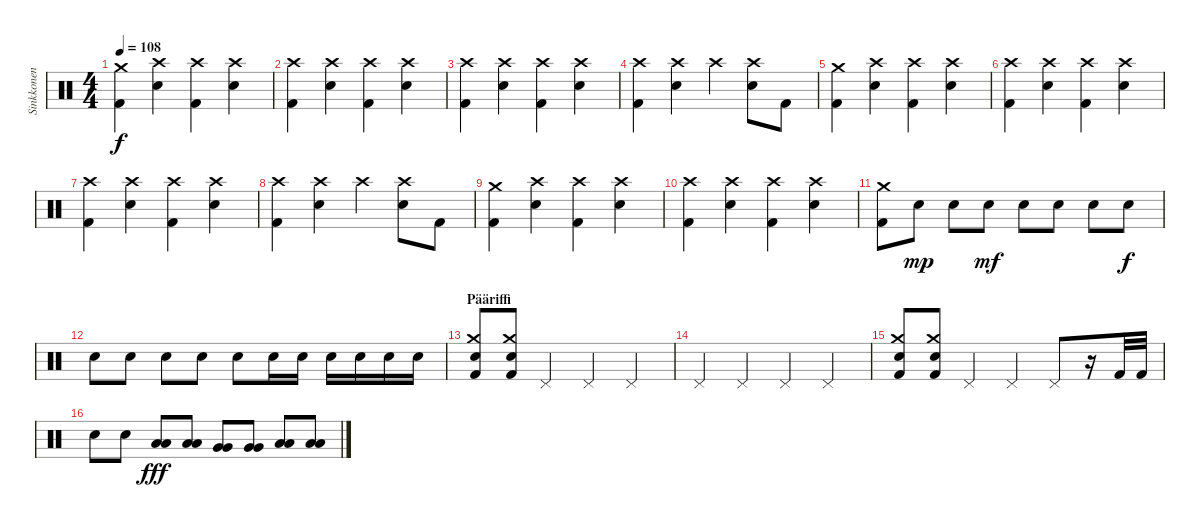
\track ("Sinkkonen" "Sinkkonen") {instrument percussion}
\staff {score}
\articulation defaults
\ts (4 4)
\tempo 108
\clef neutral
\ks c
("Kick (hit) 2" "Crash medium (hit)").4{dy f} ("Crash high (hit)" "Snare (hit) 2").4 ("Kick (hit) 2" "Crash high (hit)").4 ("Crash high (hit)" "Snare (hit) 2").4 |
("Kick (hit) 2" "Crash high (hit)").4 ("Crash high (hit)" "Snare (hit) 2").4 ("Kick (hit) 2" "Crash high (hit)").4 ("Crash high (hit)" "Snare (hit) 2").4 |
("Kick (hit) 2" "Crash high (hit)").4 ("Crash high (hit)" "Snare (hit) 2").4 ("Kick (hit) 2" "Crash high (hit)").4 ("Crash high (hit)" "Snare (hit) 2").4 |
("Kick (hit) 2" "Crash high (hit)").4 ("Crash high (hit)" "Snare (hit) 2").4 "Crash high (hit)".4 ("Crash high (hit)" "Snare (hit) 2").8 "Kick (hit) 2".8 |
("Kick (hit) 2" "Crash medium (hit)").4 ("Crash high (hit)" "Snare (hit) 2").4 ("Kick (hit) 2" "Crash high (hit)").4 ("Crash high (hit)" "Snare (hit) 2").4 |
("Kick (hit) 2" "Crash high (hit)").4 ("Crash high (hit)" "Snare (hit) 2").4 ("Kick (hit) 2" "Crash high (hit)").4 ("Crash high (hit)" "Snare (hit) 2").4 |
("Kick (hit) 2" "Crash high (hit)").4 ("Crash high (hit)" "Snare (hit) 2").4 ("Kick (hit) 2" "Crash high (hit)").4 ("Crash high (hit)" "Snare (hit) 2").4 |
("Kick (hit) 2" "Crash high (hit)").4 ("Crash high (hit)" "Snare (hit) 2").4 "Crash high (hit)".4 ("Crash high (hit)" "Snare (hit) 2").8 "Kick (hit) 2".8 |
("Kick (hit) 2" "Crash medium (hit)").4 ("Crash high (hit)" "Snare (hit) 2").4 ("Kick (hit) 2" "Crash high (hit)").4 ("Crash high (hit)" "Snare (hit) 2").4 |
("Kick (hit) 2" "Crash high (hit)").4 ("Crash high (hit)" "Snare (hit) 2").4 ("Kick (hit) 2" "Crash high (hit)").4 ("Crash high (hit)" "Snare (hit) 2").4 |
("Kick (hit) 2" "Crash medium (hit)").8 "Snare (hit) 2".8{dy mp} "Snare (hit) 2".8 "Snare (hit) 2".8{dy mf} "Snare (hit) 2".8 "Snare (hit) 2".8 "Snare (hit) 2".8 "Snare (hit) 2".8{dy f} |
"Snare (hit) 2".8 "Snare (hit) 2".8 "Snare (hit) 2".8 "Snare (hit) 2".8 "Snare (hit) 2".8 "Snare (hit) 2".16 "Snare (hit) 2".16 "Snare (hit) 2".16 "Snare (hit) 2".16 "Snare (hit) 2".16 "Snare (hit) 2".16 |
\section ("" "Pääriffi")
("Kick (hit) 2" "Crash medium (hit)" "Snare (hit) 2").8 ("Kick (hit) 2" "Crash medium (hit)" "Snare (hit) 2").8 "Pedal Hi-Hat (hit)".4 "Pedal Hi-Hat (hit)".4 "Pedal Hi-Hat (hit)".4 |
"Pedal Hi-Hat (hit)".4 "Pedal Hi-Hat (hit)".4 "Pedal Hi-Hat (hit)".4 "Pedal Hi-Hat (hit)".4 |
("Kick (hit) 2" "Crash medium (hit)" "Snare (hit) 2").8 ("Kick (hit) 2" "Crash medium (hit)" "Snare (hit) 2").8 "Pedal Hi-Hat (hit)".4 "Pedal Hi-Hat (hit)".4 "Pedal Hi-Hat (hit)".8 r.16 "Kick (hit) 2".32 "Kick (hit) 2".32 |
"Snare (hit) 2".8 "Snare (hit) 2".8 ("Low Tom (hit)" "Low Tom (hit)").8{dy fff} ("Low Tom (hit)" "Low Tom (hit)").8 ("Very Low Tom (hit)" "Very Low Tom (hit)").8 ("Very Low Tom (hit)" "Very Low Tom (hit)").8 ("Low Floor Tom (hit)" "Low Floor Tom (hit)").8 ("Low Floor Tom (hit)" "Low Floor Tom (hit)").8
